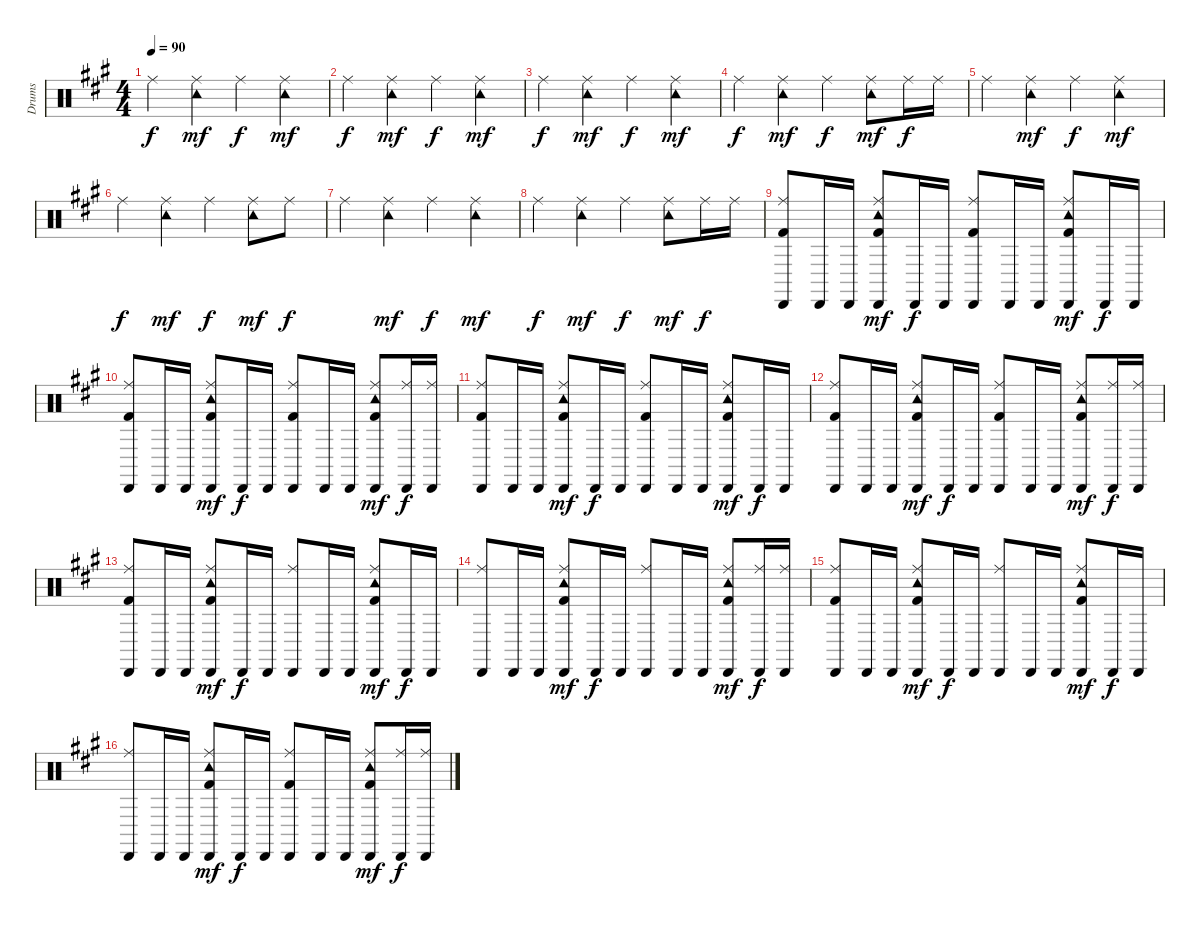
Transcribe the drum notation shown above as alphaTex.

\track ("Drums" "Drums") {instrument percussion}
\staff {score}
\articulation defaults
\ts (4 4)
\tempo 90
\clef neutral
\ks a "Ride (middle)".4{dy f}
("Ride (middle)" "Tambourine (hit)").4{dy mf} "Ride (middle)".4{dy f} ("Ride (middle)" "Tambourine (hit)").4{dy mf} |
"Ride (middle)".4{dy f} ("Ride (middle)" "Tambourine (hit)").4{dy mf} "Ride (middle)".4{dy f} ("Ride (middle)" "Tambourine (hit)").4{dy mf} |
"Ride (middle)".4{dy f} ("Ride (middle)" "Tambourine (hit)").4{dy mf} "Ride (middle)".4{dy f} ("Ride (middle)" "Tambourine (hit)").4{dy mf} |
"Ride (middle)".4{dy f} ("Ride (middle)" "Tambourine (hit)").4{dy mf} "Ride (middle)".4{dy f} ("Ride (middle)" "Tambourine (hit)").8{dy mf} "Ride (middle)".16{dy f} "Ride (middle)".16 |
"Ride (middle)".4 ("Ride (middle)" "Tambourine (hit)").4{dy mf} "Ride (middle)".4{dy f} ("Ride (middle)" "Tambourine (hit)").4{dy mf} |
"Ride (middle)".4{dy f} ("Ride (middle)" "Tambourine (hit)").4{dy mf} "Ride (middle)".4{dy f} ("Ride (middle)" "Tambourine (hit)").8{dy mf} "Ride (middle)".8{dy f} |
"Ride (middle)".4 ("Ride (middle)" "Tambourine (hit)").4{dy mf} "Ride (middle)".4{dy f} ("Ride (middle)" "Tambourine (hit)").4{dy mf} |
"Ride (middle)".4{dy f} ("Ride (middle)" "Tambourine (hit)").4{dy mf} "Ride (middle)".4{dy f} ("Ride (middle)" "Tambourine (hit)").8{dy mf} "Ride (middle)".16{dy f} "Ride (middle)".16 |
("Ride (middle)" "Cabasa (hit)" "Kick (hit) 2").8 "Cabasa (hit)".16 "Cabasa (hit)".16 ("Ride (middle)" "Tambourine (hit)" "Cabasa (hit)" "Kick (hit) 2").8{dy mf} "Cabasa (hit)".16{dy f} "Cabasa (hit)".16 ("Ride (middle)" "Cabasa (hit)" "Kick (hit) 2").8 "Cabasa (hit)".16 "Cabasa (hit)".16 ("Ride (middle)" "Tambourine (hit)" "Cabasa (hit)" "Kick (hit) 2").8{dy mf} "Cabasa (hit)".16{dy f} "Cabasa (hit)".16 |
("Ride (middle)" "Cabasa (hit)" "Kick (hit) 2").8 "Cabasa (hit)".16 "Cabasa (hit)".16 ("Ride (middle)" "Tambourine (hit)" "Cabasa (hit)" "Kick (hit) 2").8{dy mf} "Cabasa (hit)".16{dy f} "Cabasa (hit)".16 ("Ride (middle)" "Cabasa (hit)" "Kick (hit) 2").8 "Cabasa (hit)".16 "Cabasa (hit)".16 ("Ride (middle)" "Tambourine (hit)" "Cabasa (hit)" "Kick (hit) 2").8{dy mf} ("Ride (middle)" "Cabasa (hit)").16{dy f} ("Ride (middle)" "Cabasa (hit)").16 |
("Ride (middle)" "Cabasa (hit)" "Kick (hit) 2").8 "Cabasa (hit)".16 "Cabasa (hit)".16 ("Ride (middle)" "Tambourine (hit)" "Cabasa (hit)" "Kick (hit) 2").8{dy mf} "Cabasa (hit)".16{dy f} "Cabasa (hit)".16 ("Ride (middle)" "Cabasa (hit)" "Kick (hit) 2").8 "Cabasa (hit)".16 "Cabasa (hit)".16 ("Ride (middle)" "Tambourine (hit)" "Cabasa (hit)" "Kick (hit) 2").8{dy mf} "Cabasa (hit)".16{dy f} "Cabasa (hit)".16 |
("Ride (middle)" "Cabasa (hit)" "Kick (hit) 2").8 "Cabasa (hit)".16 "Cabasa (hit)".16 ("Ride (middle)" "Tambourine (hit)" "Cabasa (hit)" "Kick (hit) 2").8{dy mf} "Cabasa (hit)".16{dy f} "Cabasa (hit)".16 ("Ride (middle)" "Cabasa (hit)" "Kick (hit) 2").8 "Cabasa (hit)".16 "Cabasa (hit)".16 ("Ride (middle)" "Tambourine (hit)" "Cabasa (hit)" "Kick (hit) 2").8{dy mf} ("Ride (middle)" "Cabasa (hit)").16{dy f} ("Ride (middle)" "Cabasa (hit)").16 |
("Ride (middle)" "Cabasa (hit)" "Kick (hit) 2").8 "Cabasa (hit)".16 "Cabasa (hit)".16 ("Ride (middle)" "Tambourine (hit)" "Cabasa (hit)" "Kick (hit) 2").8{dy mf} "Cabasa (hit)".16{dy f} "Cabasa (hit)".16 ("Ride (middle)" "Cabasa (hit)").8 "Cabasa (hit)".16 "Cabasa (hit)".16 ("Ride (middle)" "Tambourine (hit)" "Cabasa (hit)" "Kick (hit) 2").8{dy mf} "Cabasa (hit)".16{dy f} "Cabasa (hit)".16 |
("Ride (middle)" "Cabasa (hit)").8 "Cabasa (hit)".16 "Cabasa (hit)".16 ("Ride (middle)" "Tambourine (hit)" "Cabasa (hit)" "Kick (hit) 2").8{dy mf} "Cabasa (hit)".16{dy f} "Cabasa (hit)".16 ("Ride (middle)" "Cabasa (hit)").8 "Cabasa (hit)".16 "Cabasa (hit)".16 ("Ride (middle)" "Tambourine (hit)" "Cabasa (hit)" "Kick (hit) 2").8{dy mf} ("Ride (middle)" "Cabasa (hit)").16{dy f} ("Ride (middle)" "Cabasa (hit)").16 |
("Ride (middle)" "Cabasa (hit)" "Kick (hit) 2").8 "Cabasa (hit)".16 "Cabasa (hit)".16 ("Ride (middle)" "Tambourine (hit)" "Cabasa (hit)" "Kick (hit) 2").8{dy mf} "Cabasa (hit)".16{dy f} "Cabasa (hit)".16 ("Ride (middle)" "Cabasa (hit)").8 "Cabasa (hit)".16 "Cabasa (hit)".16 ("Ride (middle)" "Tambourine (hit)" "Cabasa (hit)" "Kick (hit) 2").8{dy mf} "Cabasa (hit)".16{dy f} "Cabasa (hit)".16 |
("Ride (middle)" "Cabasa (hit)").8 "Cabasa (hit)".16 "Cabasa (hit)".16 ("Ride (middle)" "Tambourine (hit)" "Cabasa (hit)" "Kick (hit) 2").8{dy mf} "Cabasa (hit)".16{dy f} "Cabasa (hit)".16 ("Ride (middle)" "Cabasa (hit)" "Kick (hit) 2").8 "Cabasa (hit)".16 "Cabasa (hit)".16 ("Ride (middle)" "Tambourine (hit)" "Cabasa (hit)" "Kick (hit) 2").8{dy mf} ("Ride (middle)" "Cabasa (hit)").16{dy f} ("Ride (middle)" "Cabasa (hit)").16
